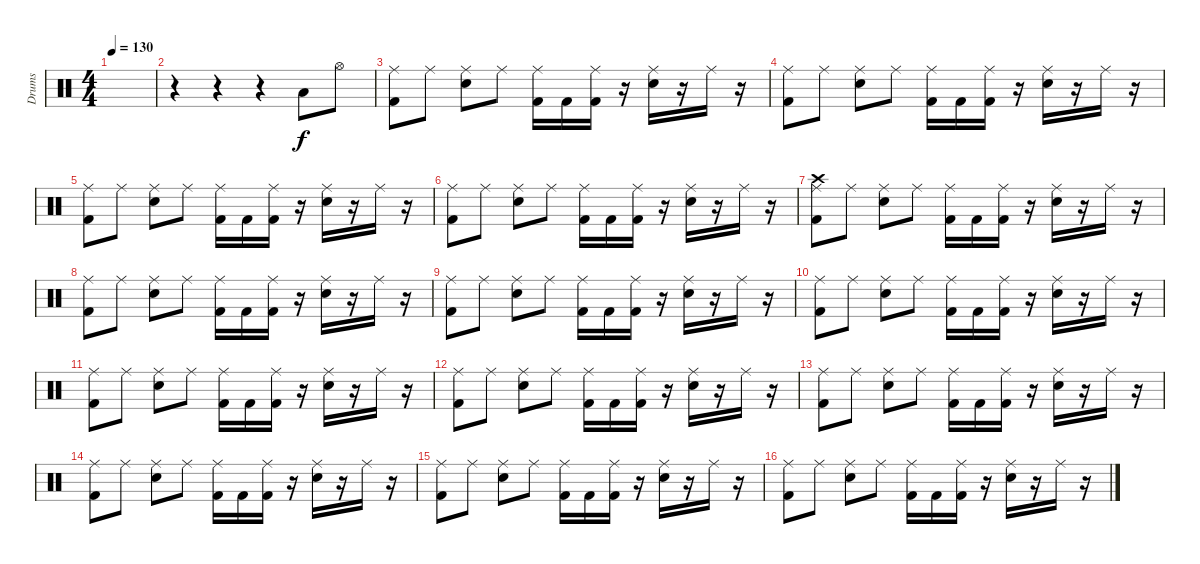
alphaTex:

\track ("Drums" "Drums") {instrument percussion}
\staff {score}
\articulation defaults
\ts (4 4)
\tempo 130
\clef neutral
\ks c
|
r.4 r.4 r.4 "Low Tom (hit)".8 "Hi-Hat (open)".8 |
("Ride (middle)" "Kick (hit) 2").8 "Ride (middle)".8 ("Ride (middle)" "Electric Snare (hit)").8 "Ride (middle)".8 ("Ride (middle)" "Kick (hit) 2").16 "Kick (hit) 2".16 ("Ride (middle)" "Kick (hit) 2").16 r.16 ("Ride (middle)" "Electric Snare (hit)").16 r.16 "Ride (middle)".16 r.16 |
("Ride (middle)" "Kick (hit) 2").8 "Ride (middle)".8 ("Ride (middle)" "Electric Snare (hit)").8 "Ride (middle)".8 ("Ride (middle)" "Kick (hit) 2").16 "Kick (hit) 2".16 ("Ride (middle)" "Kick (hit) 2").16 r.16 ("Ride (middle)" "Electric Snare (hit)").16 r.16 "Ride (middle)".16 r.16 |
("Ride (middle)" "Kick (hit) 2").8 "Ride (middle)".8 ("Ride (middle)" "Electric Snare (hit)").8 "Ride (middle)".8 ("Ride (middle)" "Kick (hit) 2").16 "Kick (hit) 2".16 ("Ride (middle)" "Kick (hit) 2").16 r.16 ("Ride (middle)" "Electric Snare (hit)").16 r.16 "Ride (middle)".16 r.16 |
("Ride (middle)" "Kick (hit) 2").8 "Ride (middle)".8 ("Ride (middle)" "Electric Snare (hit)").8 "Ride (middle)".8 ("Ride (middle)" "Kick (hit) 2").16 "Kick (hit) 2".16 ("Ride (middle)" "Kick (hit) 2").16 r.16 ("Ride (middle)" "Electric Snare (hit)").16 r.16 "Ride (middle)".16 r.16 |
("Ride (middle)" "Crash high (hit)" "Kick (hit) 2").8 "Ride (middle)".8 ("Ride (middle)" "Electric Snare (hit)").8 "Ride (middle)".8 ("Ride (middle)" "Kick (hit) 2").16 "Kick (hit) 2".16 ("Ride (middle)" "Kick (hit) 2").16 r.16 ("Ride (middle)" "Electric Snare (hit)").16 r.16 "Ride (middle)".16 r.16 |
("Ride (middle)" "Kick (hit) 2").8 "Ride (middle)".8 ("Ride (middle)" "Electric Snare (hit)").8 "Ride (middle)".8 ("Ride (middle)" "Kick (hit) 2").16 "Kick (hit) 2".16 ("Ride (middle)" "Kick (hit) 2").16 r.16 ("Ride (middle)" "Electric Snare (hit)").16 r.16 "Ride (middle)".16 r.16 |
("Ride (middle)" "Kick (hit) 2").8 "Ride (middle)".8 ("Ride (middle)" "Electric Snare (hit)").8 "Ride (middle)".8 ("Ride (middle)" "Kick (hit) 2").16 "Kick (hit) 2".16 ("Ride (middle)" "Kick (hit) 2").16 r.16 ("Ride (middle)" "Electric Snare (hit)").16 r.16 "Ride (middle)".16 r.16 |
("Ride (middle)" "Kick (hit) 2").8 "Ride (middle)".8 ("Ride (middle)" "Electric Snare (hit)").8 "Ride (middle)".8 ("Ride (middle)" "Kick (hit) 2").16 "Kick (hit) 2".16 ("Ride (middle)" "Kick (hit) 2").16 r.16 ("Ride (middle)" "Electric Snare (hit)").16 r.16 "Ride (middle)".16 r.16 |
("Ride (middle)" "Kick (hit) 2").8 "Ride (middle)".8 ("Ride (middle)" "Electric Snare (hit)").8 "Ride (middle)".8 ("Ride (middle)" "Kick (hit) 2").16 "Kick (hit) 2".16 ("Ride (middle)" "Kick (hit) 2").16 r.16 ("Ride (middle)" "Electric Snare (hit)").16 r.16 "Ride (middle)".16 r.16 |
("Ride (middle)" "Kick (hit) 2").8 "Ride (middle)".8 ("Ride (middle)" "Electric Snare (hit)").8 "Ride (middle)".8 ("Ride (middle)" "Kick (hit) 2").16 "Kick (hit) 2".16 ("Ride (middle)" "Kick (hit) 2").16 r.16 ("Ride (middle)" "Electric Snare (hit)").16 r.16 "Ride (middle)".16 r.16 |
("Ride (middle)" "Kick (hit) 2").8 "Ride (middle)".8 ("Ride (middle)" "Electric Snare (hit)").8 "Ride (middle)".8 ("Ride (middle)" "Kick (hit) 2").16 "Kick (hit) 2".16 ("Ride (middle)" "Kick (hit) 2").16 r.16 ("Ride (middle)" "Electric Snare (hit)").16 r.16 "Ride (middle)".16 r.16 |
("Ride (middle)" "Kick (hit) 2").8 "Ride (middle)".8 ("Ride (middle)" "Electric Snare (hit)").8 "Ride (middle)".8 ("Ride (middle)" "Kick (hit) 2").16 "Kick (hit) 2".16 ("Ride (middle)" "Kick (hit) 2").16 r.16 ("Ride (middle)" "Electric Snare (hit)").16 r.16 "Ride (middle)".16 r.16 |
("Ride (middle)" "Kick (hit) 2").8 "Ride (middle)".8 ("Ride (middle)" "Electric Snare (hit)").8 "Ride (middle)".8 ("Ride (middle)" "Kick (hit) 2").16 "Kick (hit) 2".16 ("Ride (middle)" "Kick (hit) 2").16 r.16 ("Ride (middle)" "Electric Snare (hit)").16 r.16 "Ride (middle)".16 r.16 |
("Ride (middle)" "Kick (hit) 2").8 "Ride (middle)".8 ("Ride (middle)" "Electric Snare (hit)").8 "Ride (middle)".8 ("Ride (middle)" "Kick (hit) 2").16 "Kick (hit) 2".16 ("Ride (middle)" "Kick (hit) 2").16 r.16 ("Ride (middle)" "Electric Snare (hit)").16 r.16 "Ride (middle)".16 r.16
